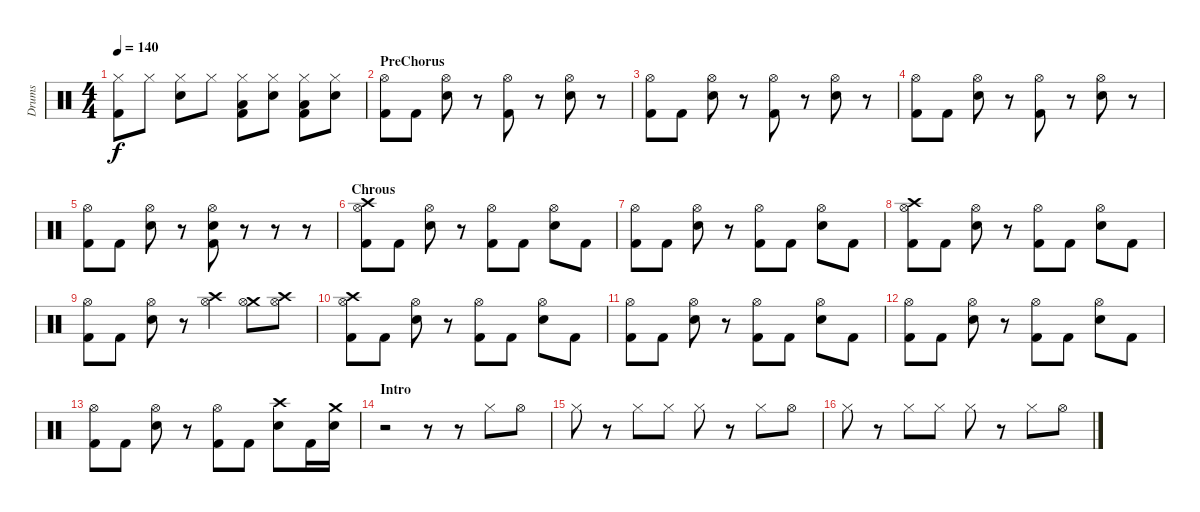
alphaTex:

\track ("Drums" "Drums") {instrument percussion}
\staff {score}
\articulation defaults
\ts (4 4)
\tempo 140
\clef neutral
\ks c
("Hi-Hat (closed)" "Kick (hit) 2").8{dy f} "Hi-Hat (closed)".8 ("Hi-Hat (closed)" "Electric Snare (hit)").8 "Hi-Hat (closed)".8 ("Hi-Hat (closed)" "Low Floor Tom (hit)" "Kick (hit) 2").8 ("Hi-Hat (closed)" "Electric Snare (hit)").8 ("Hi-Hat (closed)" "Low Floor Tom (hit)" "Kick (hit) 2").8 ("Hi-Hat (closed)" "Electric Snare (hit)").8 |
\section ("" "PreChorus")
("Hi-Hat (open)" "Kick (hit) 2").8 "Kick (hit) 2".8 ("Hi-Hat (open)" "Electric Snare (hit)").8 r.8 ("Hi-Hat (open)" "Kick (hit) 2").8 r.8 ("Hi-Hat (open)" "Electric Snare (hit)").8 r.8 |
("Hi-Hat (open)" "Kick (hit) 2").8 "Kick (hit) 2".8 ("Hi-Hat (open)" "Electric Snare (hit)").8 r.8 ("Hi-Hat (open)" "Kick (hit) 2").8 r.8 ("Hi-Hat (open)" "Electric Snare (hit)").8 r.8 |
("Hi-Hat (open)" "Kick (hit) 2").8 "Kick (hit) 2".8 ("Hi-Hat (open)" "Electric Snare (hit)").8 r.8 ("Hi-Hat (open)" "Kick (hit) 2").8 r.8 ("Hi-Hat (open)" "Electric Snare (hit)").8 r.8 |
("Hi-Hat (open)" "Kick (hit) 2").8 "Kick (hit) 2".8 ("Hi-Hat (open)" "Electric Snare (hit)").8 r.8 ("Hi-Hat (open)" "Electric Snare (hit)" "Kick (hit) 2").8 r.8 r.8 r.8 |
\section ("" "Chrous")
("Crash high (hit)" "Hi-Hat (open)" "Kick (hit) 2").8 "Kick (hit) 2".8 ("Hi-Hat (open)" "Electric Snare (hit)").8 r.8 ("Hi-Hat (open)" "Kick (hit) 2").8 "Kick (hit) 2".8 ("Hi-Hat (open)" "Electric Snare (hit)").8 "Kick (hit) 2".8 |
("Hi-Hat (open)" "Kick (hit) 2").8 "Kick (hit) 2".8 ("Hi-Hat (open)" "Electric Snare (hit)").8 r.8 ("Hi-Hat (open)" "Kick (hit) 2").8 "Kick (hit) 2".8 ("Hi-Hat (open)" "Electric Snare (hit)").8 "Kick (hit) 2".8 |
("Crash high (hit)" "Hi-Hat (open)" "Kick (hit) 2").8 "Kick (hit) 2".8 ("Hi-Hat (open)" "Electric Snare (hit)").8 r.8 ("Hi-Hat (open)" "Kick (hit) 2").8 "Kick (hit) 2".8 ("Hi-Hat (open)" "Electric Snare (hit)").8 "Kick (hit) 2".8 |
("Hi-Hat (open)" "Kick (hit) 2").8 "Kick (hit) 2".8 ("Hi-Hat (open)" "Electric Snare (hit)").8 r.8 ("Crash high (hit)" "Hi-Hat (open)").4 ("Crash medium (hit)" "Hi-Hat (open)").8 ("Crash high (hit)" "Hi-Hat (open)").8 |
("Crash high (hit)" "Hi-Hat (open)" "Kick (hit) 2").8 "Kick (hit) 2".8 ("Hi-Hat (open)" "Electric Snare (hit)").8 r.8 ("Hi-Hat (open)" "Kick (hit) 2").8 "Kick (hit) 2".8 ("Hi-Hat (open)" "Electric Snare (hit)").8 "Kick (hit) 2".8 |
("Hi-Hat (open)" "Kick (hit) 2").8 "Kick (hit) 2".8 ("Hi-Hat (open)" "Electric Snare (hit)").8 r.8 ("Hi-Hat (open)" "Kick (hit) 2").8 "Kick (hit) 2".8 ("Hi-Hat (open)" "Electric Snare (hit)").8 "Kick (hit) 2".8 |
("Hi-Hat (open)" "Kick (hit) 2").8 "Kick (hit) 2".8 ("Hi-Hat (open)" "Electric Snare (hit)").8 r.8 ("Hi-Hat (open)" "Kick (hit) 2").8 "Kick (hit) 2".8 ("Hi-Hat (open)" "Electric Snare (hit)").8 "Kick (hit) 2".8 |
("Hi-Hat (open)" "Kick (hit) 2").8 "Kick (hit) 2".8 ("Hi-Hat (open)" "Electric Snare (hit)").8 r.8 ("Hi-Hat (open)" "Kick (hit) 2").8 "Kick (hit) 2".8 ("Crash high (hit)" "Electric Snare (hit)").8 "Kick (hit) 2".16 ("Crash medium (hit)" "Electric Snare (hit)").16 |
\section ("" "Intro")
r.2 r.8 r.8 "Hi-Hat (closed)".8 "Hi-Hat (open)".8 |
"Hi-Hat (closed)".8 r.8 "Hi-Hat (closed)".8 "Hi-Hat (closed)".8 "Hi-Hat (closed)".8 r.8 "Hi-Hat (closed)".8 "Hi-Hat (open)".8 |
"Hi-Hat (closed)".8 r.8 "Hi-Hat (closed)".8 "Hi-Hat (closed)".8 "Hi-Hat (closed)".8 r.8 "Hi-Hat (closed)".8 "Hi-Hat (open)".8
